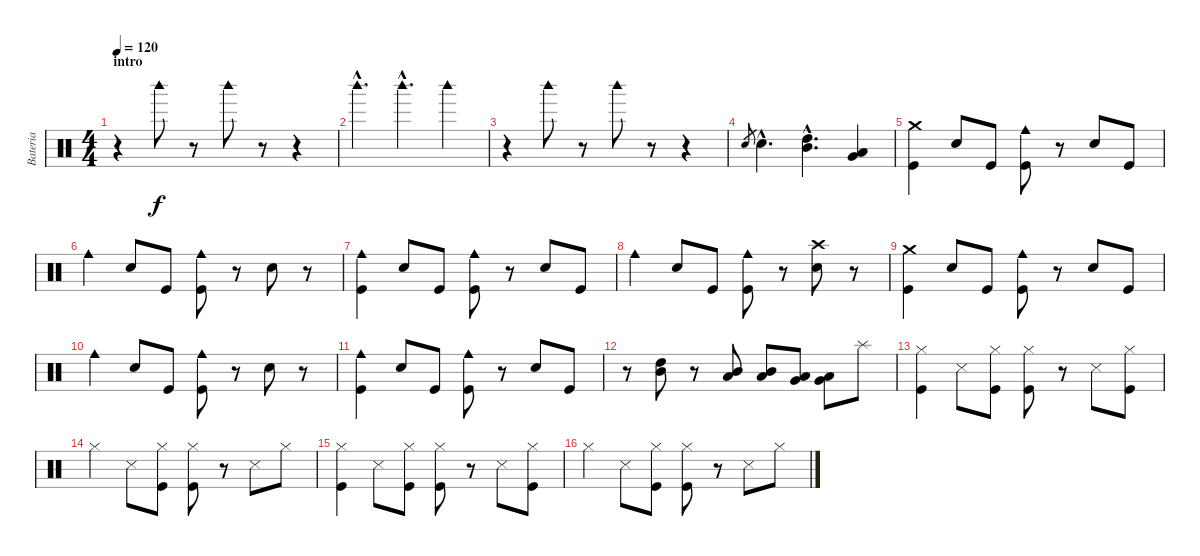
\track ("Bateria" "Bateria") {instrument percussion}
\staff {score}
\articulation defaults
\ts (4 4)
\section ("" "intro")
\tempo 120
\clef neutral
\ks c
r.4{dy f} "Woodblock high (hit)".8 r.8 "Woodblock high (hit)".8 r.8 r.4 |
"Woodblock high (hit)"{hac}.4{d} "Woodblock high (hit)"{hac}.4{d} "Woodblock high (hit)".4 |
r.4 "Woodblock high (hit)".8 r.8 "Woodblock high (hit)".8 r.8 r.4 |
"Electric Snare (hit)".8{gr} "Electric Snare (hit)"{hac}.4{d} ("Mid Tom (hit)"{hac} "High Tom (hit)"{hac}).4{d} ("Low Tom (hit)" "Very Low Tom (hit)").4 |
("Crash medium (hit)" "Kick (hit)").4 "Electric Snare (hit)".8 "Kick (hit)".8 ("Cowbell medium (hit)" "Kick (hit)").8 r.8 "Electric Snare (hit)".8 "Kick (hit)".8 |
"Cowbell medium (hit)".4 "Electric Snare (hit)".8 "Kick (hit)".8 ("Cowbell medium (hit)" "Kick (hit)").8 r.8 "Electric Snare (hit)".8 r.8 |
("Cowbell medium (hit)" "Kick (hit)").4 "Electric Snare (hit)".8 "Kick (hit)".8 ("Cowbell medium (hit)" "Kick (hit)").8 r.8 "Electric Snare (hit)".8 "Kick (hit)".8 |
"Cowbell medium (hit)".4 "Electric Snare (hit)".8 "Kick (hit)".8 ("Cowbell medium (hit)" "Kick (hit)").8 r.8 ("Crash high (hit)" "Electric Snare (hit)").8 r.8 |
("Crash medium (hit)" "Kick (hit)").4 "Electric Snare (hit)".8 "Kick (hit)".8 ("Cowbell medium (hit)" "Kick (hit)").8 r.8 "Electric Snare (hit)".8 "Kick (hit)".8 |
"Cowbell medium (hit)".4 "Electric Snare (hit)".8 "Kick (hit)".8 ("Cowbell medium (hit)" "Kick (hit)").8 r.8 "Electric Snare (hit)".8 r.8 |
("Cowbell medium (hit)" "Kick (hit)").4 "Electric Snare (hit)".8 "Kick (hit)".8 ("Cowbell medium (hit)" "Kick (hit)").8 r.8 "Electric Snare (hit)".8 "Kick (hit)".8 |
r.8 ("Mid Tom (hit)" "High Tom (hit)").8 r.8 ("Low Tom (hit)" "Mid Tom (hit)").8 ("Low Tom (hit)" "Mid Tom (hit)").8 ("Low Tom (hit)" "Very Low Tom (hit)").8 ("Low Tom (hit)" "Very Low Tom (hit)").8 "Splash (hit)".8 |
("Hi-Hat (closed)" "Kick (hit)").4 "Snare (side stick) 3".8 ("Hi-Hat (closed)" "Kick (hit)").8 ("Hi-Hat (closed)" "Kick (hit)").8 r.8 "Snare (side stick) 3".8 ("Hi-Hat (closed)" "Kick (hit)").8 |
"Hi-Hat (closed)".4 "Snare (side stick) 3".8 ("Hi-Hat (closed)" "Kick (hit)").8 ("Hi-Hat (closed)" "Kick (hit)").8 r.8 "Snare (side stick) 3".8 "Hi-Hat (closed)".8 |
("Hi-Hat (closed)" "Kick (hit)").4 "Snare (side stick) 3".8 ("Hi-Hat (closed)" "Kick (hit)").8 ("Hi-Hat (closed)" "Kick (hit)").8 r.8 "Snare (side stick) 3".8 ("Hi-Hat (closed)" "Kick (hit)").8 |
"Hi-Hat (closed)".4 "Snare (side stick) 3".8 ("Hi-Hat (closed)" "Kick (hit)").8 ("Hi-Hat (closed)" "Kick (hit)").8 r.8 "Snare (side stick) 3".8 "Hi-Hat (closed)".8
